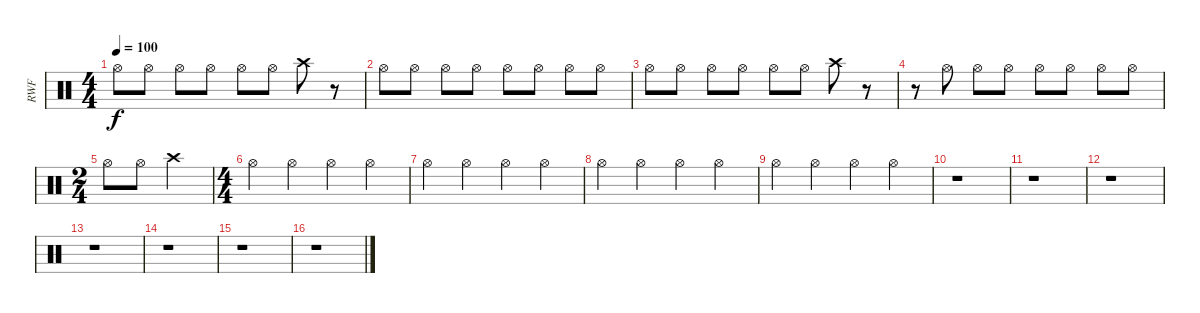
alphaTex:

\track ("RWF" "RWF") {instrument percussion}
\staff {score}
\articulation defaults
\ts (4 4)
\tempo 100
\clef neutral
\ks c "Hi-Hat (open)".8{dy f} "Hi-Hat (open)".8 "Hi-Hat (open)".8 "Hi-Hat (open)".8 "Hi-Hat (open)".8 "Hi-Hat (open)".8 "Crash high (hit)".8
r.8 |
"Hi-Hat (open)".8 "Hi-Hat (open)".8 "Hi-Hat (open)".8 "Hi-Hat (open)".8 "Hi-Hat (open)".8 "Hi-Hat (open)".8 "Hi-Hat (open)".8 "Hi-Hat (open)".8 |
"Hi-Hat (open)".8 "Hi-Hat (open)".8 "Hi-Hat (open)".8 "Hi-Hat (open)".8 "Hi-Hat (open)".8 "Hi-Hat (open)".8 "Crash high (hit)".8 r.8 |
r.8 "Hi-Hat (open)".8 "Hi-Hat (open)".8 "Hi-Hat (open)".8 "Hi-Hat (open)".8 "Hi-Hat (open)".8 "Hi-Hat (open)".8 "Hi-Hat (open)".8 |
\ts (2 4)
"Hi-Hat (open)".8 "Hi-Hat (open)".8 "Crash high (hit)".4 |
\ts (4 4)
"Hi-Hat (open)".4 "Hi-Hat (open)".4 "Hi-Hat (open)".4 "Hi-Hat (open)".4 |
"Hi-Hat (open)".4 "Hi-Hat (open)".4 "Hi-Hat (open)".4 "Hi-Hat (open)".4 |
"Hi-Hat (open)".4 "Hi-Hat (open)".4 "Hi-Hat (open)".4 "Hi-Hat (open)".4 |
"Hi-Hat (open)".4 "Hi-Hat (open)".4 "Hi-Hat (open)".4 "Hi-Hat (open)".4 |
r.1 |
r.1 |
r.1 |
r.1 |
r.1 |
r.1 |
r.1
